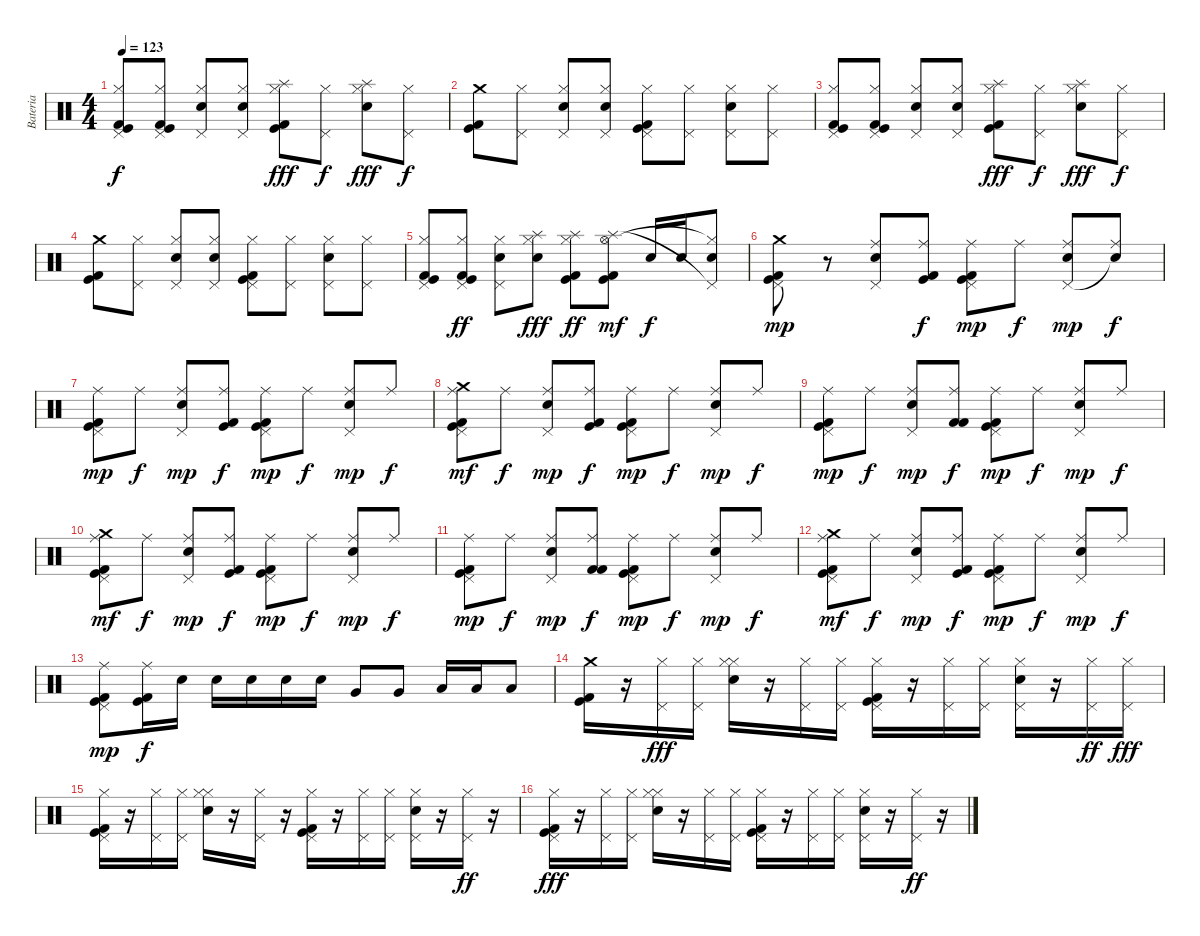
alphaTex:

\track ("Bateria" "Bateria") {instrument percussion}
\staff {score}
\articulation defaults
\ts (4 4)
\tempo 123
\clef neutral
\ks c
("Kick (hit) 2" "Pedal Hi-Hat (hit)" "Hi-Hat (closed)" "Kick (hit)").8{dy f} ("Kick (hit) 2" "Pedal Hi-Hat (hit)" "Hi-Hat (closed)" "Kick (hit)").8 ("Snare (hit) 2" "Pedal Hi-Hat (hit)" "Hi-Hat (closed)").8 ("Snare (hit) 2" "Pedal Hi-Hat (hit)" "Hi-Hat (closed)").8 ("Kick (hit) 2" "Splash (hit)" "Hi-Hat (closed)" "Kick (hit)").8{dy fff} ("Pedal Hi-Hat (hit)" "Hi-Hat (closed)").8{dy f} ("Snare (hit) 2" "Splash (hit)" "Hi-Hat (closed)").8{dy fff} ("Pedal Hi-Hat (hit)" "Hi-Hat (closed)").8{dy f} |
("Kick (hit) 2" "Crash medium (hit)" "Kick (hit)").8 ("Pedal Hi-Hat (hit)" "Hi-Hat (closed)").8 ("Snare (hit) 2" "Pedal Hi-Hat (hit)" "Hi-Hat (closed)").8 ("Snare (hit) 2" "Pedal Hi-Hat (hit)" "Hi-Hat (closed)").8 ("Kick (hit) 2" "Pedal Hi-Hat (hit)" "Hi-Hat (closed)" "Kick (hit)").8 ("Pedal Hi-Hat (hit)" "Hi-Hat (closed)").8 ("Snare (hit) 2" "Pedal Hi-Hat (hit)" "Hi-Hat (closed)").8 ("Pedal Hi-Hat (hit)" "Hi-Hat (closed)").8 |
("Kick (hit) 2" "Pedal Hi-Hat (hit)" "Hi-Hat (closed)" "Kick (hit)").8 ("Kick (hit) 2" "Pedal Hi-Hat (hit)" "Hi-Hat (closed)" "Kick (hit)").8 ("Snare (hit) 2" "Pedal Hi-Hat (hit)" "Hi-Hat (closed)").8 ("Snare (hit) 2" "Pedal Hi-Hat (hit)" "Hi-Hat (closed)").8 ("Kick (hit) 2" "Splash (hit)" "Hi-Hat (closed)" "Kick (hit)").8{dy fff} ("Pedal Hi-Hat (hit)" "Hi-Hat (closed)").8{dy f} ("Snare (hit) 2" "Splash (hit)" "Hi-Hat (closed)").8{dy fff} ("Pedal Hi-Hat (hit)" "Hi-Hat (closed)").8{dy f} |
("Kick (hit) 2" "Crash medium (hit)" "Kick (hit)").8 ("Pedal Hi-Hat (hit)" "Hi-Hat (closed)").8 ("Snare (hit) 2" "Pedal Hi-Hat (hit)" "Hi-Hat (closed)").8 ("Snare (hit) 2" "Pedal Hi-Hat (hit)" "Hi-Hat (closed)").8 ("Kick (hit) 2" "Pedal Hi-Hat (hit)" "Hi-Hat (closed)" "Kick (hit)").8 ("Pedal Hi-Hat (hit)" "Hi-Hat (closed)").8 ("Snare (hit) 2" "Pedal Hi-Hat (hit)" "Hi-Hat (closed)").8 ("Pedal Hi-Hat (hit)" "Hi-Hat (closed)").8 |
("Kick (hit) 2" "Pedal Hi-Hat (hit)" "Hi-Hat (closed)" "Kick (hit)").8 ("Kick (hit) 2" "Pedal Hi-Hat (hit)" "Hi-Hat (closed)" "Kick (hit)").8{dy ff} ("Snare (hit) 2" "Pedal Hi-Hat (hit)" "Hi-Hat (closed)").8 ("Snare (hit) 2" "Splash (hit)" "Hi-Hat (closed)").8{dy fff} ("Kick (hit) 2" "Splash (hit)" "Hi-Hat (closed)" "Kick (hit)").8{dy ff} ("Kick (hit) 2" "Splash (hit)" "Hi-Hat (open)" "Kick (hit)").8{dy mf} "Snare (hit) 2".16{dy f} "Snare (hit) 2".16 ("Snare (hit) 2" "Pedal Hi-Hat (hit)"{t} "Hi-Hat (closed)"{t}).8 |
("Kick (hit) 2" "Pedal Hi-Hat (hit)" "Crash medium (hit)" "Kick (hit)").8{dy mp} r.8 ("Snare (hit) 2" "Pedal Hi-Hat (hit)" "Ride (middle)").8 ("Kick (hit) 2" "Ride (middle)" "Kick (hit)").8{dy f} ("Kick (hit) 2" "Pedal Hi-Hat (hit)" "Ride (middle)" "Kick (hit)").8{dy mp} "Ride (middle)".8{dy f} ("Snare (hit) 2" "Pedal Hi-Hat (hit)" "Ride (middle)").8{dy mp} ("Ride (middle)" "Snare (hit)"{t}).8{dy f} |
("Kick (hit) 2" "Pedal Hi-Hat (hit)" "Ride (middle)" "Kick (hit)").8{dy mp} "Ride (middle)".8{dy f} ("Snare (hit) 2" "Pedal Hi-Hat (hit)" "Ride (middle)").8{dy mp} ("Kick (hit) 2" "Ride (middle)" "Kick (hit)").8{dy f} ("Kick (hit) 2" "Pedal Hi-Hat (hit)" "Ride (middle)" "Kick (hit)").8{dy mp} "Ride (middle)".8{dy f} ("Snare (hit) 2" "Pedal Hi-Hat (hit)" "Ride (middle)").8{dy mp} "Ride (middle)".8{dy f} |
("Kick (hit) 2" "Pedal Hi-Hat (hit)" "Crash medium (hit)" "Ride (middle)" "Kick (hit)").8{dy mf} "Ride (middle)".8{dy f} ("Snare (hit) 2" "Pedal Hi-Hat (hit)" "Ride (middle)").8{dy mp} ("Kick (hit) 2" "Ride (middle)" "Kick (hit)").8{dy f} ("Kick (hit) 2" "Pedal Hi-Hat (hit)" "Ride (middle)" "Kick (hit)").8{dy mp} "Ride (middle)".8{dy f} ("Snare (hit) 2" "Pedal Hi-Hat (hit)" "Ride (middle)").8{dy mp} "Ride (middle)".8{dy f} |
("Kick (hit) 2" "Pedal Hi-Hat (hit)" "Ride (middle)" "Kick (hit)").8{dy mp} "Ride (middle)".8{dy f} ("Snare (hit) 2" "Pedal Hi-Hat (hit)" "Ride (middle)").8{dy mp} ("Kick (hit) 2" "Ride (middle)" "Kick (hit) 2").8{dy f} ("Kick (hit) 2" "Pedal Hi-Hat (hit)" "Ride (middle)" "Kick (hit)").8{dy mp} "Ride (middle)".8{dy f} ("Snare (hit) 2" "Pedal Hi-Hat (hit)" "Ride (middle)").8{dy mp} "Ride (middle)".8{dy f} |
("Kick (hit) 2" "Pedal Hi-Hat (hit)" "Crash medium (hit)" "Ride (middle)" "Kick (hit)").8{dy mf} "Ride (middle)".8{dy f} ("Snare (hit) 2" "Pedal Hi-Hat (hit)" "Ride (middle)").8{dy mp} ("Kick (hit) 2" "Ride (middle)" "Kick (hit)").8{dy f} ("Kick (hit) 2" "Pedal Hi-Hat (hit)" "Ride (middle)" "Kick (hit)").8{dy mp} "Ride (middle)".8{dy f} ("Snare (hit) 2" "Pedal Hi-Hat (hit)" "Ride (middle)").8{dy mp} "Ride (middle)".8{dy f} |
("Kick (hit) 2" "Pedal Hi-Hat (hit)" "Ride (middle)" "Kick (hit)").8{dy mp} "Ride (middle)".8{dy f} ("Snare (hit) 2" "Pedal Hi-Hat (hit)" "Ride (middle)").8{dy mp} ("Kick (hit) 2" "Ride (middle)" "Kick (hit) 2").8{dy f} ("Kick (hit) 2" "Pedal Hi-Hat (hit)" "Ride (middle)" "Kick (hit)").8{dy mp} "Ride (middle)".8{dy f} ("Snare (hit) 2" "Pedal Hi-Hat (hit)" "Ride (middle)").8{dy mp} "Ride (middle)".8{dy f} |
("Kick (hit) 2" "Pedal Hi-Hat (hit)" "Crash medium (hit)" "Ride (middle)" "Kick (hit)").8{dy mf} "Ride (middle)".8{dy f} ("Snare (hit) 2" "Pedal Hi-Hat (hit)" "Ride (middle)").8{dy mp} ("Kick (hit) 2" "Ride (middle)" "Kick (hit)").8{dy f} ("Kick (hit) 2" "Pedal Hi-Hat (hit)" "Ride (middle)" "Kick (hit)").8{dy mp} "Ride (middle)".8{dy f} ("Snare (hit) 2" "Pedal Hi-Hat (hit)" "Ride (middle)").8{dy mp} "Ride (middle)".8{dy f} |
("Kick (hit) 2" "Pedal Hi-Hat (hit)" "Ride (middle)" "Kick (hit)").8{dy mp} ("Kick (hit) 2" "Ride (middle)" "Kick (hit)").16{dy f} "Snare (hit) 2".16 "Snare (hit) 2".16 "Snare (hit) 2".16 "Snare (hit) 2".16 "Snare (hit) 2".16 "Very Low Tom (hit)".8 "Very Low Tom (hit)".8 "Low Floor Tom (hit)".16 "Low Floor Tom (hit)".16 "Low Floor Tom (hit)".8 |
("Kick (hit) 2" "Crash medium (hit)" "Kick (hit)").16 r.16 ("Hi-Hat (closed)" "Pedal Hi-Hat (hit)").16{dy fff} ("Hi-Hat (closed)" "Pedal Hi-Hat (hit)").16 ("Snare (hit) 2" "Hi-Hat (closed)" "Hi-Hat (closed)").16 r.16 ("Hi-Hat (closed)" "Pedal Hi-Hat (hit)").16 ("Hi-Hat (closed)" "Pedal Hi-Hat (hit)").16 ("Kick (hit) 2" "Hi-Hat (closed)" "Pedal Hi-Hat (hit)" "Kick (hit)").16 r.16 ("Hi-Hat (closed)" "Pedal Hi-Hat (hit)").16 ("Hi-Hat (closed)" "Pedal Hi-Hat (hit)").16 ("Snare (hit) 2" "Hi-Hat (closed)" "Pedal Hi-Hat (hit)").16 r.16 ("Hi-Hat (closed)" "Pedal Hi-Hat (hit)").16{dy ff} ("Hi-Hat (closed)" "Pedal Hi-Hat (hit)").16{dy fff} |
("Kick (hit) 2" "Hi-Hat (closed)" "Pedal Hi-Hat (hit)" "Kick (hit)").16 r.16 ("Hi-Hat (closed)" "Pedal Hi-Hat (hit)").16 ("Hi-Hat (closed)" "Pedal Hi-Hat (hit)").16 ("Snare (hit) 2" "Hi-Hat (closed)" "Hi-Hat (closed)").16 r.16 ("Hi-Hat (closed)" "Pedal Hi-Hat (hit)").16 r.16 ("Kick (hit) 2" "Hi-Hat (closed)" "Pedal Hi-Hat (hit)" "Kick (hit)").16 r.16 ("Hi-Hat (closed)" "Pedal Hi-Hat (hit)").16 ("Hi-Hat (closed)" "Pedal Hi-Hat (hit)").16 ("Snare (hit) 2" "Hi-Hat (closed)" "Pedal Hi-Hat (hit)").16 r.16 ("Hi-Hat (closed)" "Pedal Hi-Hat (hit)").16{dy ff} r.16 |
("Kick (hit) 2" "Hi-Hat (closed)" "Pedal Hi-Hat (hit)" "Kick (hit)").16{dy fff} r.16 ("Hi-Hat (closed)" "Pedal Hi-Hat (hit)").16 ("Hi-Hat (closed)" "Pedal Hi-Hat (hit)").16 ("Snare (hit) 2" "Hi-Hat (closed)" "Hi-Hat (closed)").16 r.16 ("Hi-Hat (closed)" "Pedal Hi-Hat (hit)").16 ("Hi-Hat (closed)" "Pedal Hi-Hat (hit)").16 ("Kick (hit) 2" "Hi-Hat (closed)" "Pedal Hi-Hat (hit)" "Kick (hit)").16 r.16 ("Hi-Hat (closed)" "Pedal Hi-Hat (hit)").16 ("Hi-Hat (closed)" "Pedal Hi-Hat (hit)").16 ("Snare (hit) 2" "Hi-Hat (closed)" "Pedal Hi-Hat (hit)").16 r.16 ("Hi-Hat (closed)" "Pedal Hi-Hat (hit)").16{dy ff} r.16
